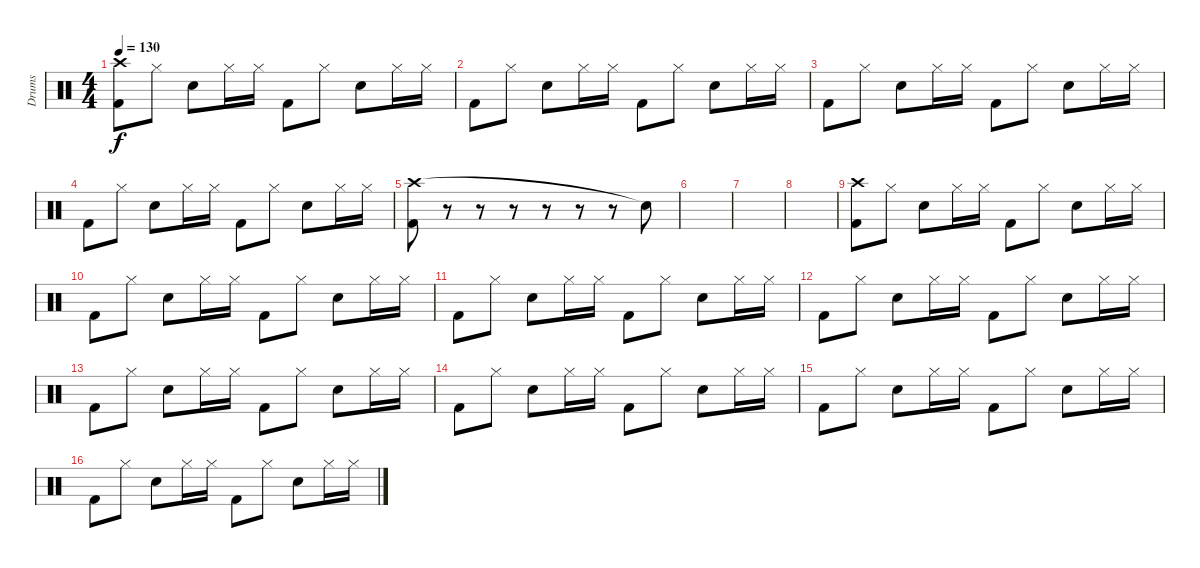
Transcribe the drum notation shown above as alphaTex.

\track ("Drums" "Drums") {instrument percussion}
\staff {score}
\articulation defaults
\ts (4 4)
\tempo 130
\clef neutral
\ks c
("Crash high (hit)" "Kick (hit) 2").8{dy f} "Hi-Hat (closed)".8 "Snare (hit) 2".8 "Hi-Hat (closed)".16 "Hi-Hat (closed)".16 "Kick (hit) 2".8 "Hi-Hat (closed)".8 "Snare (hit) 2".8 "Hi-Hat (closed)".16 "Hi-Hat (closed)".16 |
"Kick (hit) 2".8 "Hi-Hat (closed)".8 "Snare (hit) 2".8 "Hi-Hat (closed)".16 "Hi-Hat (closed)".16 "Kick (hit) 2".8 "Hi-Hat (closed)".8 "Snare (hit) 2".8 "Hi-Hat (closed)".16 "Hi-Hat (closed)".16 |
"Kick (hit) 2".8 "Hi-Hat (closed)".8 "Snare (hit) 2".8 "Hi-Hat (closed)".16 "Hi-Hat (closed)".16 "Kick (hit) 2".8 "Hi-Hat (closed)".8 "Snare (hit) 2".8 "Hi-Hat (closed)".16 "Hi-Hat (closed)".16 |
"Kick (hit) 2".8 "Hi-Hat (closed)".8 "Snare (hit) 2".8 "Hi-Hat (closed)".16 "Hi-Hat (closed)".16 "Kick (hit) 2".8 "Hi-Hat (closed)".8 "Snare (hit) 2".8 "Hi-Hat (closed)".16 "Hi-Hat (closed)".16 |
("Crash high (hit)" "Kick (hit) 2").8 r.8 r.8 r.8 r.8 r.8 r.8 "Snare (hit)"{t}.8 |
|
|
|
("Crash high (hit)" "Kick (hit) 2").8 "Hi-Hat (closed)".8 "Snare (hit) 2".8 "Hi-Hat (closed)".16 "Hi-Hat (closed)".16 "Kick (hit) 2".8 "Hi-Hat (closed)".8 "Snare (hit) 2".8 "Hi-Hat (closed)".16 "Hi-Hat (closed)".16 |
"Kick (hit) 2".8 "Hi-Hat (closed)".8 "Snare (hit) 2".8 "Hi-Hat (closed)".16 "Hi-Hat (closed)".16 "Kick (hit) 2".8 "Hi-Hat (closed)".8 "Snare (hit) 2".8 "Hi-Hat (closed)".16 "Hi-Hat (closed)".16 |
"Kick (hit) 2".8 "Hi-Hat (closed)".8 "Snare (hit) 2".8 "Hi-Hat (closed)".16 "Hi-Hat (closed)".16 "Kick (hit) 2".8 "Hi-Hat (closed)".8 "Snare (hit) 2".8 "Hi-Hat (closed)".16 "Hi-Hat (closed)".16 |
"Kick (hit) 2".8 "Hi-Hat (closed)".8 "Snare (hit) 2".8 "Hi-Hat (closed)".16 "Hi-Hat (closed)".16 "Kick (hit) 2".8 "Hi-Hat (closed)".8 "Snare (hit) 2".8 "Hi-Hat (closed)".16 "Hi-Hat (closed)".16 |
"Kick (hit) 2".8 "Hi-Hat (closed)".8 "Snare (hit) 2".8 "Hi-Hat (closed)".16 "Hi-Hat (closed)".16 "Kick (hit) 2".8 "Hi-Hat (closed)".8 "Snare (hit) 2".8 "Hi-Hat (closed)".16 "Hi-Hat (closed)".16 |
"Kick (hit) 2".8 "Hi-Hat (closed)".8 "Snare (hit) 2".8 "Hi-Hat (closed)".16 "Hi-Hat (closed)".16 "Kick (hit) 2".8 "Hi-Hat (closed)".8 "Snare (hit) 2".8 "Hi-Hat (closed)".16 "Hi-Hat (closed)".16 |
"Kick (hit) 2".8 "Hi-Hat (closed)".8 "Snare (hit) 2".8 "Hi-Hat (closed)".16 "Hi-Hat (closed)".16 "Kick (hit) 2".8 "Hi-Hat (closed)".8 "Snare (hit) 2".8 "Hi-Hat (closed)".16 "Hi-Hat (closed)".16 |
"Kick (hit) 2".8 "Hi-Hat (closed)".8 "Snare (hit) 2".8 "Hi-Hat (closed)".16 "Hi-Hat (closed)".16 "Kick (hit) 2".8 "Hi-Hat (closed)".8 "Snare (hit) 2".8 "Hi-Hat (closed)".16 "Hi-Hat (closed)".16
